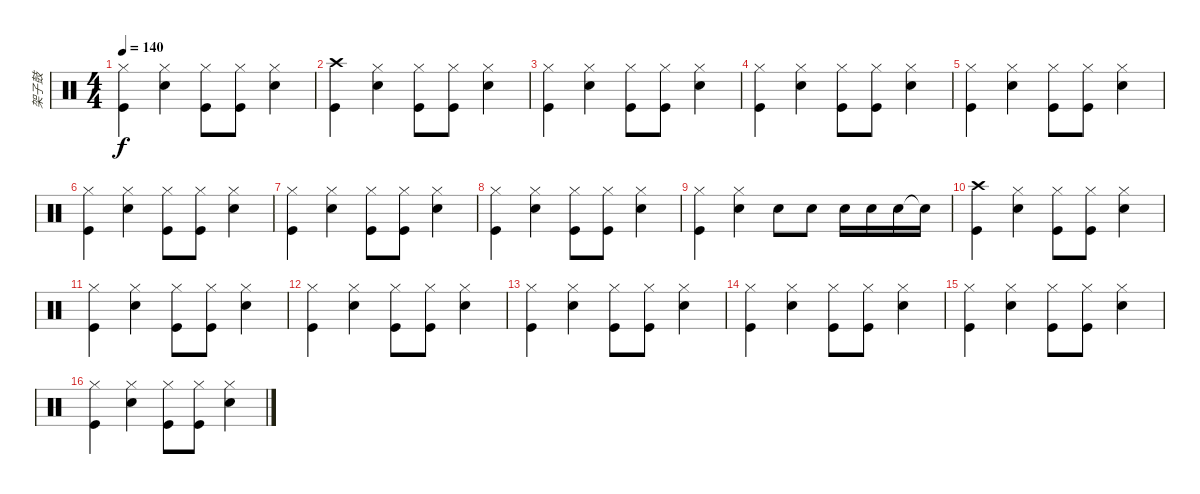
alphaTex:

\track ("架子鼓" "架子鼓") {instrument percussion}
\staff {score}
\articulation defaults
\ts (4 4)
\tempo 140
\clef neutral
\ks c
("Hi-Hat (closed)" "Kick (hit)").4{dy f} ("Hi-Hat (closed)" "Electric Snare (hit)").4 ("Hi-Hat (closed)" "Kick (hit)").8 ("Hi-Hat (closed)" "Kick (hit)").8 ("Hi-Hat (closed)" "Electric Snare (hit)").4 |
("Crash high (hit)" "Kick (hit)").4 ("Hi-Hat (closed)" "Electric Snare (hit)").4 ("Hi-Hat (closed)" "Kick (hit)").8 ("Hi-Hat (closed)" "Kick (hit)").8 ("Hi-Hat (closed)" "Electric Snare (hit)").4 |
("Hi-Hat (closed)" "Kick (hit)").4 ("Hi-Hat (closed)" "Electric Snare (hit)").4 ("Hi-Hat (closed)" "Kick (hit)").8 ("Hi-Hat (closed)" "Kick (hit)").8 ("Hi-Hat (closed)" "Electric Snare (hit)").4 |
("Hi-Hat (closed)" "Kick (hit)").4 ("Hi-Hat (closed)" "Electric Snare (hit)").4 ("Hi-Hat (closed)" "Kick (hit)").8 ("Hi-Hat (closed)" "Kick (hit)").8 ("Hi-Hat (closed)" "Electric Snare (hit)").4 |
("Hi-Hat (closed)" "Kick (hit)").4 ("Hi-Hat (closed)" "Electric Snare (hit)").4 ("Hi-Hat (closed)" "Kick (hit)").8 ("Hi-Hat (closed)" "Kick (hit)").8 ("Hi-Hat (closed)" "Electric Snare (hit)").4 |
("Hi-Hat (closed)" "Kick (hit)").4 ("Hi-Hat (closed)" "Electric Snare (hit)").4 ("Hi-Hat (closed)" "Kick (hit)").8 ("Hi-Hat (closed)" "Kick (hit)").8 ("Hi-Hat (closed)" "Electric Snare (hit)").4 |
("Hi-Hat (closed)" "Kick (hit)").4 ("Hi-Hat (closed)" "Electric Snare (hit)").4 ("Hi-Hat (closed)" "Kick (hit)").8 ("Hi-Hat (closed)" "Kick (hit)").8 ("Hi-Hat (closed)" "Electric Snare (hit)").4 |
("Hi-Hat (closed)" "Kick (hit)").4 ("Hi-Hat (closed)" "Electric Snare (hit)").4 ("Hi-Hat (closed)" "Kick (hit)").8 ("Hi-Hat (closed)" "Kick (hit)").8 ("Hi-Hat (closed)" "Electric Snare (hit)").4 |
("Hi-Hat (closed)" "Kick (hit)").4 ("Hi-Hat (closed)" "Electric Snare (hit)").4 "Electric Snare (hit)".8 "Electric Snare (hit)".8 "Electric Snare (hit)".16 "Electric Snare (hit)".16 "Electric Snare (hit)".16 "Snare (hit)"{t}.16 |
("Crash high (hit)" "Kick (hit)").4 ("Hi-Hat (closed)" "Electric Snare (hit)").4 ("Hi-Hat (closed)" "Kick (hit)").8 ("Hi-Hat (closed)" "Kick (hit)").8 ("Hi-Hat (closed)" "Electric Snare (hit)").4 |
("Hi-Hat (closed)" "Kick (hit)").4 ("Hi-Hat (closed)" "Electric Snare (hit)").4 ("Hi-Hat (closed)" "Kick (hit)").8 ("Hi-Hat (closed)" "Kick (hit)").8 ("Hi-Hat (closed)" "Electric Snare (hit)").4 |
("Hi-Hat (closed)" "Kick (hit)").4 ("Hi-Hat (closed)" "Electric Snare (hit)").4 ("Hi-Hat (closed)" "Kick (hit)").8 ("Hi-Hat (closed)" "Kick (hit)").8 ("Hi-Hat (closed)" "Electric Snare (hit)").4 |
("Hi-Hat (closed)" "Kick (hit)").4 ("Hi-Hat (closed)" "Electric Snare (hit)").4 ("Hi-Hat (closed)" "Kick (hit)").8 ("Hi-Hat (closed)" "Kick (hit)").8 ("Hi-Hat (closed)" "Electric Snare (hit)").4 |
("Hi-Hat (closed)" "Kick (hit)").4 ("Hi-Hat (closed)" "Electric Snare (hit)").4 ("Hi-Hat (closed)" "Kick (hit)").8 ("Hi-Hat (closed)" "Kick (hit)").8 ("Hi-Hat (closed)" "Electric Snare (hit)").4 |
("Hi-Hat (closed)" "Kick (hit)").4 ("Hi-Hat (closed)" "Electric Snare (hit)").4 ("Hi-Hat (closed)" "Kick (hit)").8 ("Hi-Hat (closed)" "Kick (hit)").8 ("Hi-Hat (closed)" "Electric Snare (hit)").4 |
("Hi-Hat (closed)" "Kick (hit)").4 ("Hi-Hat (closed)" "Electric Snare (hit)").4 ("Hi-Hat (closed)" "Kick (hit)").8 ("Hi-Hat (closed)" "Kick (hit)").8 ("Hi-Hat (closed)" "Electric Snare (hit)").4
